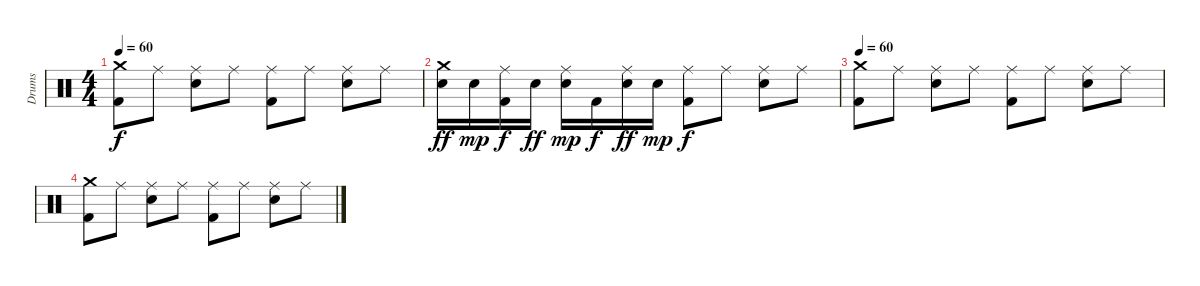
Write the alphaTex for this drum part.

\track ("Drums" "Drums") {instrument percussion}
\staff {score}
\articulation defaults
\ts (4 4)
\tempo 60
\clef neutral
\ks c
("Crash medium (hit)" "Kick (hit) 2").8{dy f} "Ride (middle)".8 ("Ride (middle)" "Electric Snare (hit)").8 "Ride (middle)".8 ("Ride (middle)" "Kick (hit) 2").8 "Ride (middle)".8 ("Ride (middle)" "Electric Snare (hit)").8 "Ride (middle)".8 |
("Crash medium (hit)" "Electric Snare (hit)").16{dy ff} "Electric Snare (hit)".16{dy mp} ("Ride (middle)" "Kick (hit) 2").16{dy f} "Electric Snare (hit)".16{dy ff} ("Ride (middle)" "Electric Snare (hit)").16{dy mp} "Kick (hit) 2".16{dy f} ("Ride (middle)" "Electric Snare (hit)").16{dy ff} "Electric Snare (hit)".16{dy mp} ("Ride (middle)" "Kick (hit) 2").8{dy f} "Ride (middle)".8 ("Ride (middle)" "Electric Snare (hit)").8 "Ride (middle)".8 |
\tempo 60
("Crash medium (hit)" "Kick (hit) 2").8 "Ride (middle)".8 ("Ride (middle)" "Electric Snare (hit)").8 "Ride (middle)".8 ("Ride (middle)" "Kick (hit) 2").8 "Ride (middle)".8 ("Ride (middle)" "Electric Snare (hit)").8 "Ride (middle)".8 |
("Crash medium (hit)" "Kick (hit) 2").8 "Ride (middle)".8 ("Ride (middle)" "Electric Snare (hit)").8 "Ride (middle)".8 ("Ride (middle)" "Kick (hit) 2").8 "Ride (middle)".8 ("Ride (middle)" "Electric Snare (hit)").8 "Ride (middle)".8
